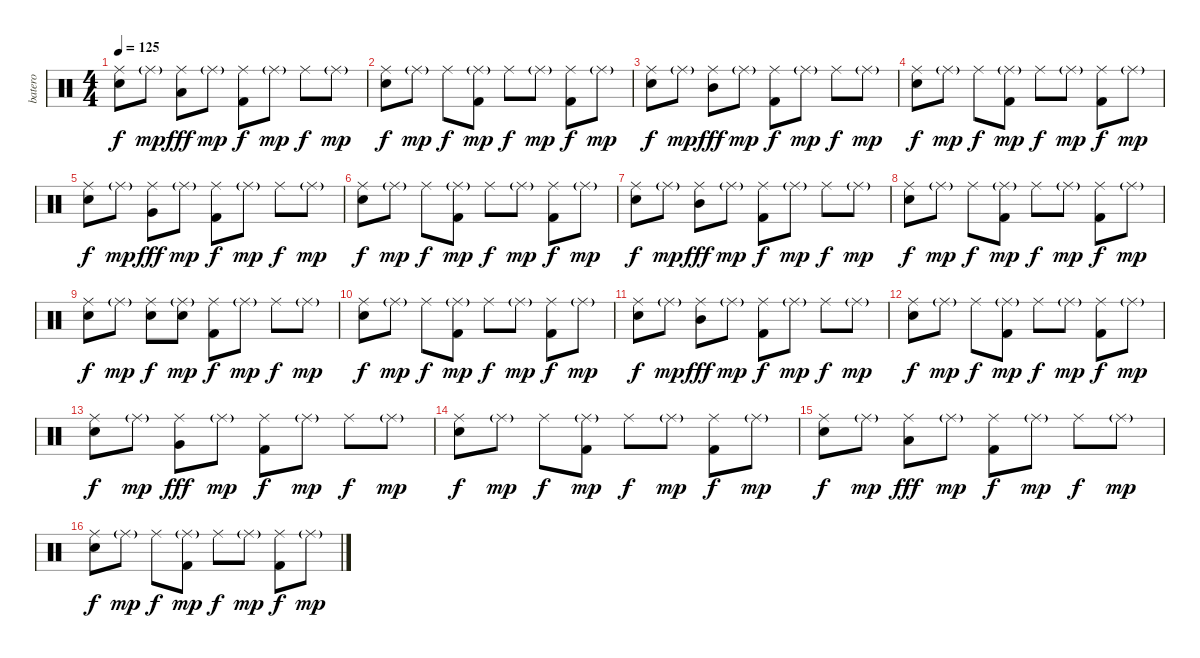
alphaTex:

\track ("batero" "batero") {instrument percussion}
\staff {score}
\articulation defaults
\ts (4 4)
\tempo 125
\clef neutral
\ks c
("Ride (middle)" "Snare (hit) 2").8{dy f} "Ride (middle)"{g}.8{dy mp} ("Ride (middle)" "Low Floor Tom (hit)").8{dy fff} "Ride (middle)"{g}.8{dy mp} ("Ride (middle)" "Kick (hit) 2").8{dy f} "Ride (middle)"{g}.8{dy mp} "Ride (middle)".8{dy f} "Ride (middle)"{g}.8{dy mp} |
("Ride (middle)" "Snare (hit) 2").8{dy f} "Ride (middle)"{g}.8{dy mp} "Ride (middle)".8{dy f} ("Ride (middle)"{g} "Kick (hit) 2").8{dy mp} "Ride (middle)".8{dy f} "Ride (middle)"{g}.8{dy mp} ("Ride (middle)" "Kick (hit) 2").8{dy f} "Ride (middle)"{g}.8{dy mp} |
("Ride (middle)" "Snare (hit) 2").8{dy f} "Ride (middle)"{g}.8{dy mp} ("Ride (middle)" "Mid Tom (hit)").8{dy fff} "Ride (middle)"{g}.8{dy mp} ("Ride (middle)" "Kick (hit) 2").8{dy f} "Ride (middle)"{g}.8{dy mp} "Ride (middle)".8{dy f} "Ride (middle)"{g}.8{dy mp} |
("Ride (middle)" "Snare (hit) 2").8{dy f} "Ride (middle)"{g}.8{dy mp} "Ride (middle)".8{dy f} ("Ride (middle)"{g} "Kick (hit) 2").8{dy mp} "Ride (middle)".8{dy f} "Ride (middle)"{g}.8{dy mp} ("Ride (middle)" "Kick (hit) 2").8{dy f} "Ride (middle)"{g}.8{dy mp} |
("Ride (middle)" "Snare (hit) 2").8{dy f} "Ride (middle)"{g}.8{dy mp} ("Ride (middle)" "Very Low Tom (hit)").8{dy fff} "Ride (middle)"{g}.8{dy mp} ("Ride (middle)" "Kick (hit) 2").8{dy f} "Ride (middle)"{g}.8{dy mp} "Ride (middle)".8{dy f} "Ride (middle)"{g}.8{dy mp} |
("Ride (middle)" "Snare (hit) 2").8{dy f} "Ride (middle)"{g}.8{dy mp} "Ride (middle)".8{dy f} ("Ride (middle)"{g} "Kick (hit) 2").8{dy mp} "Ride (middle)".8{dy f} "Ride (middle)"{g}.8{dy mp} ("Ride (middle)" "Kick (hit) 2").8{dy f} "Ride (middle)"{g}.8{dy mp} |
("Ride (middle)" "Snare (hit) 2").8{dy f} "Ride (middle)"{g}.8{dy mp} ("Ride (middle)" "Mid Tom (hit)").8{dy fff} "Ride (middle)"{g}.8{dy mp} ("Ride (middle)" "Kick (hit) 2").8{dy f} "Ride (middle)"{g}.8{dy mp} "Ride (middle)".8{dy f} "Ride (middle)"{g}.8{dy mp} |
("Ride (middle)" "Snare (hit) 2").8{dy f} "Ride (middle)"{g}.8{dy mp} "Ride (middle)".8{dy f} ("Ride (middle)"{g} "Kick (hit) 2").8{dy mp} "Ride (middle)".8{dy f} "Ride (middle)"{g}.8{dy mp} ("Ride (middle)" "Kick (hit) 2").8{dy f} "Ride (middle)"{g}.8{dy mp} |
("Ride (middle)" "Snare (hit) 2").8{dy f} "Ride (middle)"{g}.8{dy mp} ("Ride (middle)" "Snare (hit) 2").8{dy f} ("Ride (middle)"{g} "Snare (hit) 2").8{dy mp} ("Ride (middle)" "Kick (hit) 2").8{dy f} "Ride (middle)"{g}.8{dy mp} "Ride (middle)".8{dy f} "Ride (middle)"{g}.8{dy mp} |
("Ride (middle)" "Snare (hit) 2").8{dy f} "Ride (middle)"{g}.8{dy mp} "Ride (middle)".8{dy f} ("Ride (middle)"{g} "Kick (hit) 2").8{dy mp} "Ride (middle)".8{dy f} "Ride (middle)"{g}.8{dy mp} ("Ride (middle)" "Kick (hit) 2").8{dy f} "Ride (middle)"{g}.8{dy mp} |
("Ride (middle)" "Snare (hit) 2").8{dy f} "Ride (middle)"{g}.8{dy mp} ("Ride (middle)" "Mid Tom (hit)").8{dy fff} "Ride (middle)"{g}.8{dy mp} ("Ride (middle)" "Kick (hit) 2").8{dy f} "Ride (middle)"{g}.8{dy mp} "Ride (middle)".8{dy f} "Ride (middle)"{g}.8{dy mp} |
("Ride (middle)" "Snare (hit) 2").8{dy f} "Ride (middle)"{g}.8{dy mp} "Ride (middle)".8{dy f} ("Ride (middle)"{g} "Kick (hit) 2").8{dy mp} "Ride (middle)".8{dy f} "Ride (middle)"{g}.8{dy mp} ("Ride (middle)" "Kick (hit) 2").8{dy f} "Ride (middle)"{g}.8{dy mp} |
("Ride (middle)" "Snare (hit) 2").8{dy f} "Ride (middle)"{g}.8{dy mp} ("Ride (middle)" "Very Low Tom (hit)").8{dy fff} "Ride (middle)"{g}.8{dy mp} ("Ride (middle)" "Kick (hit) 2").8{dy f} "Ride (middle)"{g}.8{dy mp} "Ride (middle)".8{dy f} "Ride (middle)"{g}.8{dy mp} |
("Ride (middle)" "Snare (hit) 2").8{dy f} "Ride (middle)"{g}.8{dy mp} "Ride (middle)".8{dy f} ("Ride (middle)"{g} "Kick (hit) 2").8{dy mp} "Ride (middle)".8{dy f} "Ride (middle)"{g}.8{dy mp} ("Ride (middle)" "Kick (hit) 2").8{dy f} "Ride (middle)"{g}.8{dy mp} |
("Ride (middle)" "Snare (hit) 2").8{dy f} "Ride (middle)"{g}.8{dy mp} ("Ride (middle)" "Low Tom (hit)").8{dy fff} "Ride (middle)"{g}.8{dy mp} ("Ride (middle)" "Kick (hit) 2").8{dy f} "Ride (middle)"{g}.8{dy mp} "Ride (middle)".8{dy f} "Ride (middle)"{g}.8{dy mp} |
("Ride (middle)" "Snare (hit) 2").8{dy f} "Ride (middle)"{g}.8{dy mp} "Ride (middle)".8{dy f} ("Ride (middle)"{g} "Kick (hit) 2").8{dy mp} "Ride (middle)".8{dy f} "Ride (middle)"{g}.8{dy mp} ("Ride (middle)" "Kick (hit) 2").8{dy f} "Ride (middle)"{g}.8{dy mp}
